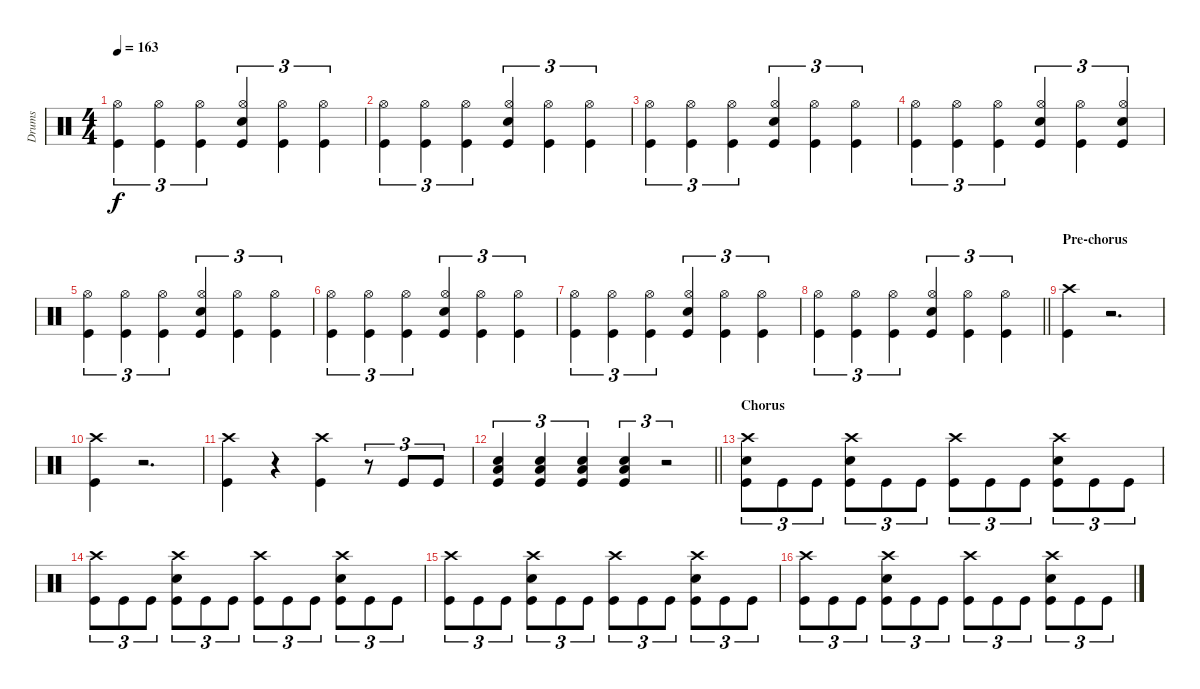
\track ("Drums" "Drums") {instrument percussion}
\staff {score}
\articulation defaults
\ts (4 4)
\tempo 163
\clef neutral
\ks c
("Kick (hit)" "Hi-Hat (open)").4{tu (3 2) dy f} ("Kick (hit)" "Hi-Hat (open)").4{tu (3 2)} ("Kick (hit)" "Hi-Hat (open)").4{tu (3 2)} ("Snare (hit) 2" "Hi-Hat (open)" "Kick (hit)").4{tu (3 2)} ("Kick (hit)" "Hi-Hat (open)").4{tu (3 2)} ("Kick (hit)" "Hi-Hat (open)").4{tu (3 2)} |
("Kick (hit)" "Hi-Hat (open)").4{tu (3 2)} ("Kick (hit)" "Hi-Hat (open)").4{tu (3 2)} ("Kick (hit)" "Hi-Hat (open)").4{tu (3 2)} ("Snare (hit) 2" "Hi-Hat (open)" "Kick (hit)").4{tu (3 2)} ("Kick (hit)" "Hi-Hat (open)").4{tu (3 2)} ("Kick (hit)" "Hi-Hat (open)").4{tu (3 2)} |
("Kick (hit)" "Hi-Hat (open)").4{tu (3 2)} ("Kick (hit)" "Hi-Hat (open)").4{tu (3 2)} ("Kick (hit)" "Hi-Hat (open)").4{tu (3 2)} ("Snare (hit) 2" "Hi-Hat (open)" "Kick (hit)").4{tu (3 2)} ("Kick (hit)" "Hi-Hat (open)").4{tu (3 2)} ("Kick (hit)" "Hi-Hat (open)").4{tu (3 2)} |
("Kick (hit)" "Hi-Hat (open)").4{tu (3 2)} ("Kick (hit)" "Hi-Hat (open)").4{tu (3 2)} ("Kick (hit)" "Hi-Hat (open)").4{tu (3 2)} ("Snare (hit) 2" "Hi-Hat (open)" "Kick (hit)").4{tu (3 2)} ("Kick (hit)" "Hi-Hat (open)").4{tu (3 2)} ("Kick (hit)" "Hi-Hat (open)" "Snare (hit) 2").4{tu (3 2)} |
("Kick (hit)" "Hi-Hat (open)").4{tu (3 2)} ("Kick (hit)" "Hi-Hat (open)").4{tu (3 2)} ("Kick (hit)" "Hi-Hat (open)").4{tu (3 2)} ("Snare (hit) 2" "Hi-Hat (open)" "Kick (hit)").4{tu (3 2)} ("Kick (hit)" "Hi-Hat (open)").4{tu (3 2)} ("Kick (hit)" "Hi-Hat (open)").4{tu (3 2)} |
("Kick (hit)" "Hi-Hat (open)").4{tu (3 2)} ("Kick (hit)" "Hi-Hat (open)").4{tu (3 2)} ("Kick (hit)" "Hi-Hat (open)").4{tu (3 2)} ("Snare (hit) 2" "Hi-Hat (open)" "Kick (hit)").4{tu (3 2)} ("Kick (hit)" "Hi-Hat (open)").4{tu (3 2)} ("Kick (hit)" "Hi-Hat (open)").4{tu (3 2)} |
("Kick (hit)" "Hi-Hat (open)").4{tu (3 2)} ("Kick (hit)" "Hi-Hat (open)").4{tu (3 2)} ("Kick (hit)" "Hi-Hat (open)").4{tu (3 2)} ("Snare (hit) 2" "Hi-Hat (open)" "Kick (hit)").4{tu (3 2)} ("Kick (hit)" "Hi-Hat (open)").4{tu (3 2)} ("Kick (hit)" "Hi-Hat (open)").4{tu (3 2)} |
\barLineRight lightlight
("Kick (hit)" "Hi-Hat (open)").4{tu (3 2)} ("Kick (hit)" "Hi-Hat (open)").4{tu (3 2)} ("Kick (hit)" "Hi-Hat (open)").4{tu (3 2)} ("Snare (hit) 2" "Hi-Hat (open)" "Kick (hit)").4{tu (3 2)} ("Kick (hit)" "Hi-Hat (open)").4{tu (3 2)} ("Kick (hit)" "Hi-Hat (open)").4{tu (3 2)} |
\section ("" "Pre-chorus")
("Kick (hit)" "Crash high (hit)").4 r.2{d} |
("Crash high (hit)" "Kick (hit)").4 r.2{d} |
("Kick (hit)" "Crash high (hit)").4 r.4 ("Kick (hit)" "Crash high (hit)").4 r.8{tu (3 2)} "Kick (hit)".8{tu (3 2)} "Kick (hit)".8{tu (3 2)} |
\barLineRight lightlight
("Kick (hit)" "Snare (hit) 2" "Low Floor Tom (hit)").4{tu (3 2)} ("Kick (hit)" "Snare (hit) 2" "Low Floor Tom (hit)").4{tu (3 2)} ("Kick (hit)" "Snare (hit) 2" "Low Floor Tom (hit)").4{tu (3 2)} ("Kick (hit)" "Snare (hit) 2" "Low Floor Tom (hit)").4{tu (3 2)} r.2{tu (3 2)} |
\section ("" "Chorus")
("Kick (hit)" "Crash high (hit)" "Snare (hit) 2").8{tu (3 2)} "Kick (hit)".8{tu (3 2)} "Kick (hit)".8{tu (3 2)} ("Kick (hit)" "Snare (hit) 2" "Crash high (hit)").8{tu (3 2)} "Kick (hit)".8{tu (3 2)} "Kick (hit)".8{tu (3 2)} ("Kick (hit)" "Crash high (hit)").8{tu (3 2)} "Kick (hit)".8{tu (3 2)} "Kick (hit)".8{tu (3 2)} ("Kick (hit)" "Snare (hit) 2" "Crash high (hit)").8{tu (3 2)} "Kick (hit)".8{tu (3 2)} "Kick (hit)".8{tu (3 2)} |
("Kick (hit)" "Crash high (hit)").8{tu (3 2)} "Kick (hit)".8{tu (3 2)} "Kick (hit)".8{tu (3 2)} ("Kick (hit)" "Snare (hit) 2" "Crash high (hit)").8{tu (3 2)} "Kick (hit)".8{tu (3 2)} "Kick (hit)".8{tu (3 2)} ("Kick (hit)" "Crash high (hit)").8{tu (3 2)} "Kick (hit)".8{tu (3 2)} "Kick (hit)".8{tu (3 2)} ("Kick (hit)" "Snare (hit) 2" "Crash high (hit)").8{tu (3 2)} "Kick (hit)".8{tu (3 2)} "Kick (hit)".8{tu (3 2)} |
("Kick (hit)" "Crash high (hit)").8{tu (3 2)} "Kick (hit)".8{tu (3 2)} "Kick (hit)".8{tu (3 2)} ("Kick (hit)" "Snare (hit) 2" "Crash high (hit)").8{tu (3 2)} "Kick (hit)".8{tu (3 2)} "Kick (hit)".8{tu (3 2)} ("Kick (hit)" "Crash high (hit)").8{tu (3 2)} "Kick (hit)".8{tu (3 2)} "Kick (hit)".8{tu (3 2)} ("Kick (hit)" "Snare (hit) 2" "Crash high (hit)").8{tu (3 2)} "Kick (hit)".8{tu (3 2)} "Kick (hit)".8{tu (3 2)} |
("Kick (hit)" "Crash high (hit)").8{tu (3 2)} "Kick (hit)".8{tu (3 2)} "Kick (hit)".8{tu (3 2)} ("Kick (hit)" "Snare (hit) 2" "Crash high (hit)").8{tu (3 2)} "Kick (hit)".8{tu (3 2)} "Kick (hit)".8{tu (3 2)} ("Kick (hit)" "Crash high (hit)").8{tu (3 2)} "Kick (hit)".8{tu (3 2)} "Kick (hit)".8{tu (3 2)} ("Kick (hit)" "Snare (hit) 2" "Crash high (hit)").8{tu (3 2)} "Kick (hit)".8{tu (3 2)} "Kick (hit)".8{tu (3 2)}
